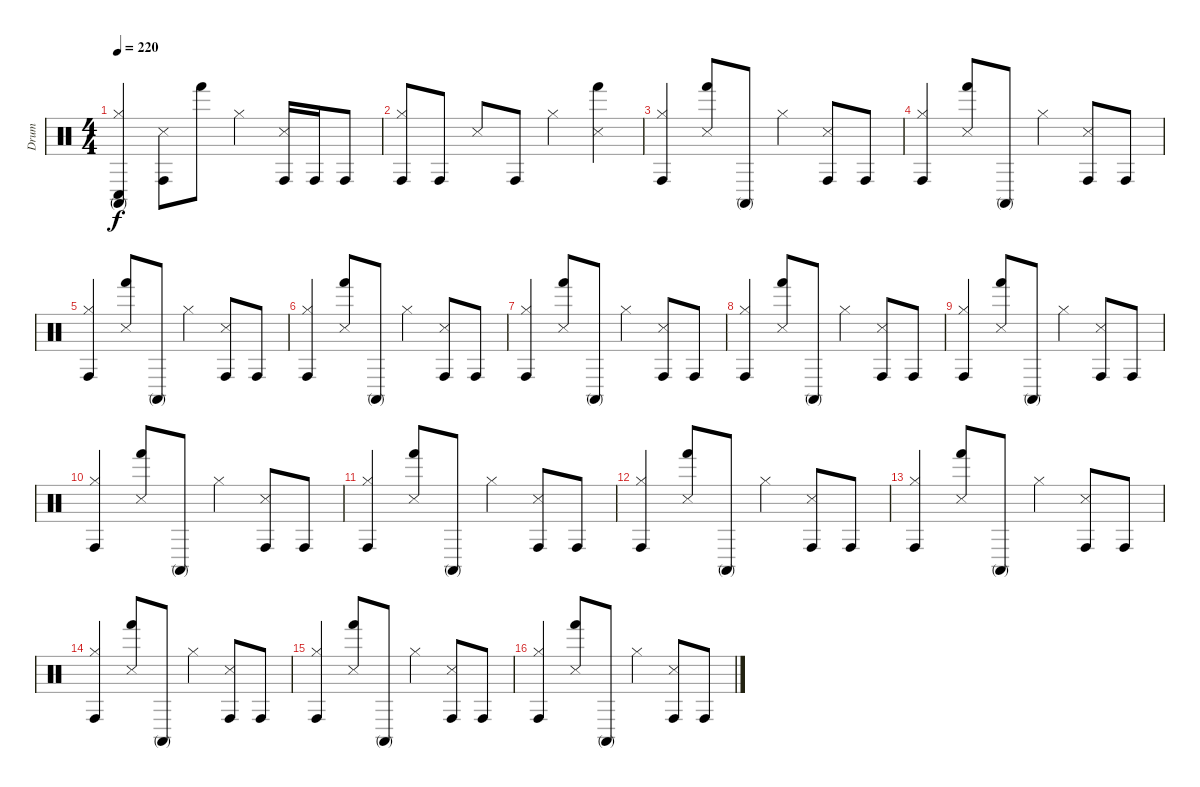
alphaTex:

\track ("Drum" "Drum") {instrument percussion}
\staff {score}
\articulation defaults
\ts (4 4)
\tempo 220
\clef neutral
\ks c
("Hi-Hat (closed)" "Conga low (hit)" "Conga high (mute)").4{dy f} ("Metronome (hit)" "Conga high (hit)").8 "Hand (hit)".8 "Hi-Hat (closed)".4 ("Metronome (hit)" "Conga high (hit)").16 "Conga high (hit)".16 "Conga high (hit)".8 |
("Hi-Hat (closed)" "Conga high (hit)").8 "Conga high (hit)".8 "Metronome (hit)".8 "Conga high (hit)".8 "Hi-Hat (closed)".4 ("Metronome (hit)" "Hand (hit)").4 |
("Hi-Hat (closed)" "Conga high (hit)").4 ("Metronome (hit)" "Hand (hit)").8 "Conga high (mute)".8 "Hi-Hat (closed)".4 ("Metronome (hit)" "Conga high (hit)").8 "Conga high (hit)".8 |
("Hi-Hat (closed)" "Conga high (hit)").4 ("Metronome (hit)" "Hand (hit)").8 "Conga high (mute)".8 "Hi-Hat (closed)".4 ("Metronome (hit)" "Conga high (hit)").8 "Conga high (hit)".8 |
("Hi-Hat (closed)" "Conga high (hit)").4 ("Metronome (hit)" "Hand (hit)").8 "Conga high (mute)".8 "Hi-Hat (closed)".4 ("Metronome (hit)" "Conga high (hit)").8 "Conga high (hit)".8 |
("Hi-Hat (closed)" "Conga high (hit)").4 ("Metronome (hit)" "Hand (hit)").8 "Conga high (mute)".8 "Hi-Hat (closed)".4 ("Metronome (hit)" "Conga high (hit)").8 "Conga high (hit)".8 |
("Hi-Hat (closed)" "Conga high (hit)").4 ("Metronome (hit)" "Hand (hit)").8 "Conga high (mute)".8 "Hi-Hat (closed)".4 ("Metronome (hit)" "Conga high (hit)").8 "Conga high (hit)".8 |
("Hi-Hat (closed)" "Conga high (hit)").4 ("Metronome (hit)" "Hand (hit)").8 "Conga high (mute)".8 "Hi-Hat (closed)".4 ("Metronome (hit)" "Conga high (hit)").8 "Conga high (hit)".8 |
("Hi-Hat (closed)" "Conga high (hit)").4 ("Metronome (hit)" "Hand (hit)").8 "Conga high (mute)".8 "Hi-Hat (closed)".4 ("Metronome (hit)" "Conga high (hit)").8 "Conga high (hit)".8 |
("Hi-Hat (closed)" "Conga high (hit)").4 ("Metronome (hit)" "Hand (hit)").8 "Conga high (mute)".8 "Hi-Hat (closed)".4 ("Metronome (hit)" "Conga high (hit)").8 "Conga high (hit)".8 |
("Hi-Hat (closed)" "Conga high (hit)").4 ("Metronome (hit)" "Hand (hit)").8 "Conga high (mute)".8 "Hi-Hat (closed)".4 ("Metronome (hit)" "Conga high (hit)").8 "Conga high (hit)".8 |
("Hi-Hat (closed)" "Conga high (hit)").4 ("Metronome (hit)" "Hand (hit)").8 "Conga high (mute)".8 "Hi-Hat (closed)".4 ("Metronome (hit)" "Conga high (hit)").8 "Conga high (hit)".8 |
("Hi-Hat (closed)" "Conga high (hit)").4 ("Metronome (hit)" "Hand (hit)").8 "Conga high (mute)".8 "Hi-Hat (closed)".4 ("Metronome (hit)" "Conga high (hit)").8 "Conga high (hit)".8 |
("Hi-Hat (closed)" "Conga high (hit)").4 ("Metronome (hit)" "Hand (hit)").8 "Conga high (mute)".8 "Hi-Hat (closed)".4 ("Metronome (hit)" "Conga high (hit)").8 "Conga high (hit)".8 |
("Hi-Hat (closed)" "Conga high (hit)").4 ("Metronome (hit)" "Hand (hit)").8 "Conga high (mute)".8 "Hi-Hat (closed)".4 ("Metronome (hit)" "Conga high (hit)").8 "Conga high (hit)".8 |
("Hi-Hat (closed)" "Conga high (hit)").4 ("Metronome (hit)" "Hand (hit)").8 "Conga high (mute)".8 "Hi-Hat (closed)".4 ("Metronome (hit)" "Conga high (hit)").8 "Conga high (hit)".8
